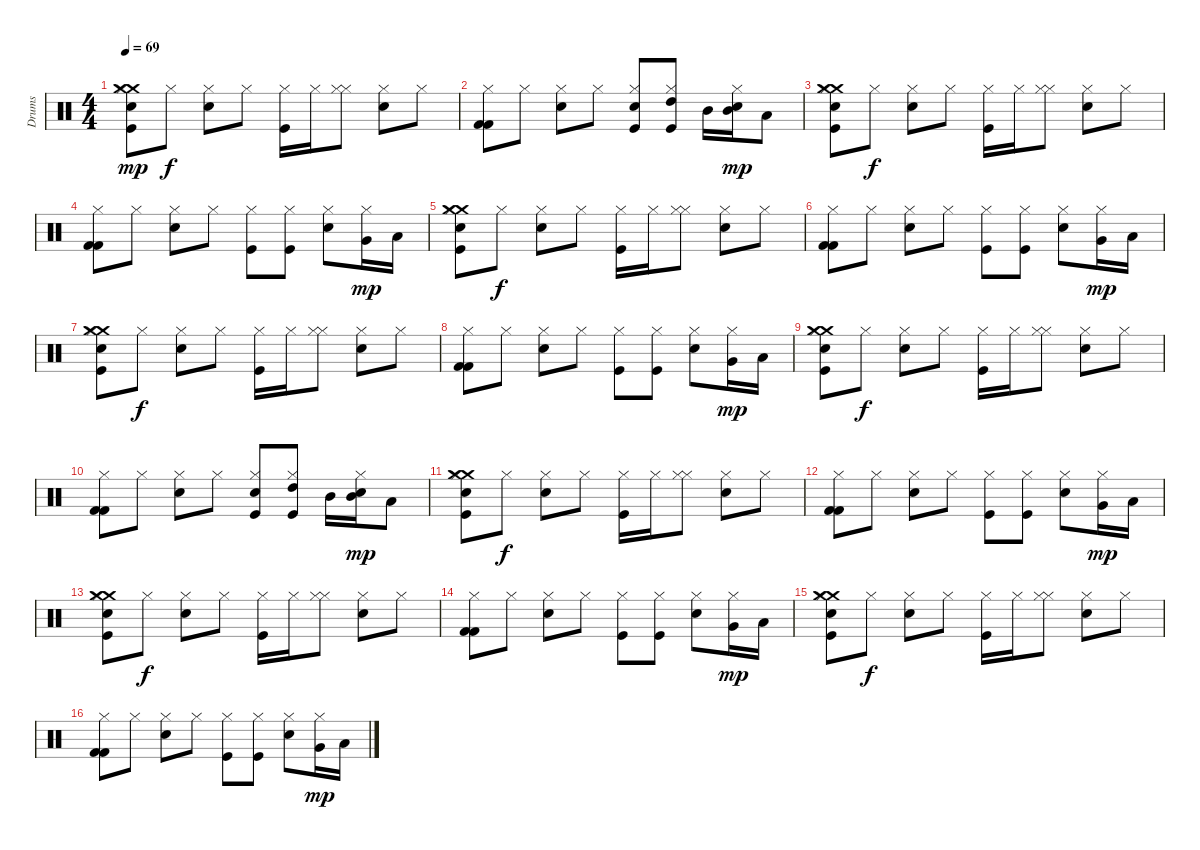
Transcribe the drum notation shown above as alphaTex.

\track ("Drums" "Drums") {instrument percussion}
\staff {score}
\articulation defaults
\ts (4 4)
\tempo 69
\clef neutral
\ks c
("Kick (hit)" "Crash medium (hit)" "Electric Snare (hit)" "Crash medium (hit)" "Hi-Hat (closed)").8{dy mp} "Hi-Hat (closed)".8{dy f} ("Snare (hit) 2" "Hi-Hat (closed)").8 "Hi-Hat (closed)".8 ("Kick (hit)" "Hi-Hat (closed)").16 "Hi-Hat (closed)".16 ("Hi-Hat (closed)" "Hi-Hat (closed)").8 ("Snare (hit) 2" "Hi-Hat (closed)").8 "Hi-Hat (closed)".8 |
("Hi-Hat (closed)" "Kick (hit) 2" "Kick (hit) 2").8 "Hi-Hat (closed)".8 ("Snare (hit) 2" "Hi-Hat (closed)").8 "Hi-Hat (closed)".8 ("Kick (hit)" "Hi-Hat (closed)" "Snare (hit) 2").8 ("Kick (hit)" "Hi-Hat (closed)" "High Tom (hit)").8 "Mid Tom (hit)".16 ("Mid Tom (hit)" "Hi-Hat (closed)" "Snare (hit) 2").16{dy mp} "Low Tom (hit)".8 |
("Kick (hit)" "Crash medium (hit)" "Electric Snare (hit)" "Crash medium (hit)" "Hi-Hat (closed)").8 "Hi-Hat (closed)".8{dy f} ("Snare (hit) 2" "Hi-Hat (closed)").8 "Hi-Hat (closed)".8 ("Kick (hit)" "Hi-Hat (closed)").16 "Hi-Hat (closed)".16 ("Hi-Hat (closed)" "Hi-Hat (closed)").8 ("Snare (hit) 2" "Hi-Hat (closed)").8 "Hi-Hat (closed)".8 |
("Hi-Hat (closed)" "Kick (hit) 2" "Kick (hit) 2").8 "Hi-Hat (closed)".8 ("Snare (hit) 2" "Hi-Hat (closed)").8 "Hi-Hat (closed)".8 ("Kick (hit)" "Hi-Hat (closed)").8 ("Kick (hit)" "Hi-Hat (closed)").8 ("Snare (hit) 2" "Hi-Hat (closed)").8 ("Very Low Tom (hit)" "Hi-Hat (closed)").16{dy mp} "Low Floor Tom (hit)".16 |
("Kick (hit)" "Crash medium (hit)" "Electric Snare (hit)" "Crash medium (hit)" "Hi-Hat (closed)").8 "Hi-Hat (closed)".8{dy f} ("Snare (hit) 2" "Hi-Hat (closed)").8 "Hi-Hat (closed)".8 ("Kick (hit)" "Hi-Hat (closed)").16 "Hi-Hat (closed)".16 ("Hi-Hat (closed)" "Hi-Hat (closed)").8 ("Snare (hit) 2" "Hi-Hat (closed)").8 "Hi-Hat (closed)".8 |
("Hi-Hat (closed)" "Kick (hit) 2" "Kick (hit) 2").8 "Hi-Hat (closed)".8 ("Snare (hit) 2" "Hi-Hat (closed)").8 "Hi-Hat (closed)".8 ("Kick (hit)" "Hi-Hat (closed)").8 ("Kick (hit)" "Hi-Hat (closed)").8 ("Snare (hit) 2" "Hi-Hat (closed)").8 ("Very Low Tom (hit)" "Hi-Hat (closed)").16{dy mp} "Low Floor Tom (hit)".16 |
("Kick (hit)" "Crash medium (hit)" "Electric Snare (hit)" "Crash medium (hit)" "Hi-Hat (closed)").8 "Hi-Hat (closed)".8{dy f} ("Snare (hit) 2" "Hi-Hat (closed)").8 "Hi-Hat (closed)".8 ("Kick (hit)" "Hi-Hat (closed)").16 "Hi-Hat (closed)".16 ("Hi-Hat (closed)" "Hi-Hat (closed)").8 ("Snare (hit) 2" "Hi-Hat (closed)").8 "Hi-Hat (closed)".8 |
("Hi-Hat (closed)" "Kick (hit) 2" "Kick (hit) 2").8 "Hi-Hat (closed)".8 ("Snare (hit) 2" "Hi-Hat (closed)").8 "Hi-Hat (closed)".8 ("Kick (hit)" "Hi-Hat (closed)").8 ("Kick (hit)" "Hi-Hat (closed)").8 ("Snare (hit) 2" "Hi-Hat (closed)").8 ("Very Low Tom (hit)" "Hi-Hat (closed)").16{dy mp} "Low Floor Tom (hit)".16 |
("Kick (hit)" "Crash medium (hit)" "Electric Snare (hit)" "Crash medium (hit)" "Hi-Hat (closed)").8 "Hi-Hat (closed)".8{dy f} ("Snare (hit) 2" "Hi-Hat (closed)").8 "Hi-Hat (closed)".8 ("Kick (hit)" "Hi-Hat (closed)").16 "Hi-Hat (closed)".16 ("Hi-Hat (closed)" "Hi-Hat (closed)").8 ("Snare (hit) 2" "Hi-Hat (closed)").8 "Hi-Hat (closed)".8 |
("Hi-Hat (closed)" "Kick (hit) 2" "Kick (hit) 2").8 "Hi-Hat (closed)".8 ("Snare (hit) 2" "Hi-Hat (closed)").8 "Hi-Hat (closed)".8 ("Kick (hit)" "Hi-Hat (closed)" "Snare (hit) 2").8 ("Kick (hit)" "Hi-Hat (closed)" "High Tom (hit)").8 "Mid Tom (hit)".16 ("Mid Tom (hit)" "Hi-Hat (closed)" "Snare (hit) 2").16{dy mp} "Low Tom (hit)".8 |
("Kick (hit)" "Crash medium (hit)" "Electric Snare (hit)" "Crash medium (hit)" "Hi-Hat (closed)").8 "Hi-Hat (closed)".8{dy f} ("Snare (hit) 2" "Hi-Hat (closed)").8 "Hi-Hat (closed)".8 ("Kick (hit)" "Hi-Hat (closed)").16 "Hi-Hat (closed)".16 ("Hi-Hat (closed)" "Hi-Hat (closed)").8 ("Snare (hit) 2" "Hi-Hat (closed)").8 "Hi-Hat (closed)".8 |
("Hi-Hat (closed)" "Kick (hit) 2" "Kick (hit) 2").8 "Hi-Hat (closed)".8 ("Snare (hit) 2" "Hi-Hat (closed)").8 "Hi-Hat (closed)".8 ("Kick (hit)" "Hi-Hat (closed)").8 ("Kick (hit)" "Hi-Hat (closed)").8 ("Snare (hit) 2" "Hi-Hat (closed)").8 ("Very Low Tom (hit)" "Hi-Hat (closed)").16{dy mp} "Low Floor Tom (hit)".16 |
("Kick (hit)" "Crash medium (hit)" "Electric Snare (hit)" "Crash medium (hit)" "Hi-Hat (closed)").8 "Hi-Hat (closed)".8{dy f} ("Snare (hit) 2" "Hi-Hat (closed)").8 "Hi-Hat (closed)".8 ("Kick (hit)" "Hi-Hat (closed)").16 "Hi-Hat (closed)".16 ("Hi-Hat (closed)" "Hi-Hat (closed)").8 ("Snare (hit) 2" "Hi-Hat (closed)").8 "Hi-Hat (closed)".8 |
("Hi-Hat (closed)" "Kick (hit) 2" "Kick (hit) 2").8 "Hi-Hat (closed)".8 ("Snare (hit) 2" "Hi-Hat (closed)").8 "Hi-Hat (closed)".8 ("Kick (hit)" "Hi-Hat (closed)").8 ("Kick (hit)" "Hi-Hat (closed)").8 ("Snare (hit) 2" "Hi-Hat (closed)").8 ("Very Low Tom (hit)" "Hi-Hat (closed)").16{dy mp} "Low Floor Tom (hit)".16 |
("Kick (hit)" "Crash medium (hit)" "Electric Snare (hit)" "Crash medium (hit)" "Hi-Hat (closed)").8 "Hi-Hat (closed)".8{dy f} ("Snare (hit) 2" "Hi-Hat (closed)").8 "Hi-Hat (closed)".8 ("Kick (hit)" "Hi-Hat (closed)").16 "Hi-Hat (closed)".16 ("Hi-Hat (closed)" "Hi-Hat (closed)").8 ("Snare (hit) 2" "Hi-Hat (closed)").8 "Hi-Hat (closed)".8 |
("Hi-Hat (closed)" "Kick (hit) 2" "Kick (hit) 2").8 "Hi-Hat (closed)".8 ("Snare (hit) 2" "Hi-Hat (closed)").8 "Hi-Hat (closed)".8 ("Kick (hit)" "Hi-Hat (closed)").8 ("Kick (hit)" "Hi-Hat (closed)").8 ("Snare (hit) 2" "Hi-Hat (closed)").8 ("Very Low Tom (hit)" "Hi-Hat (closed)").16{dy mp} "Low Floor Tom (hit)".16
